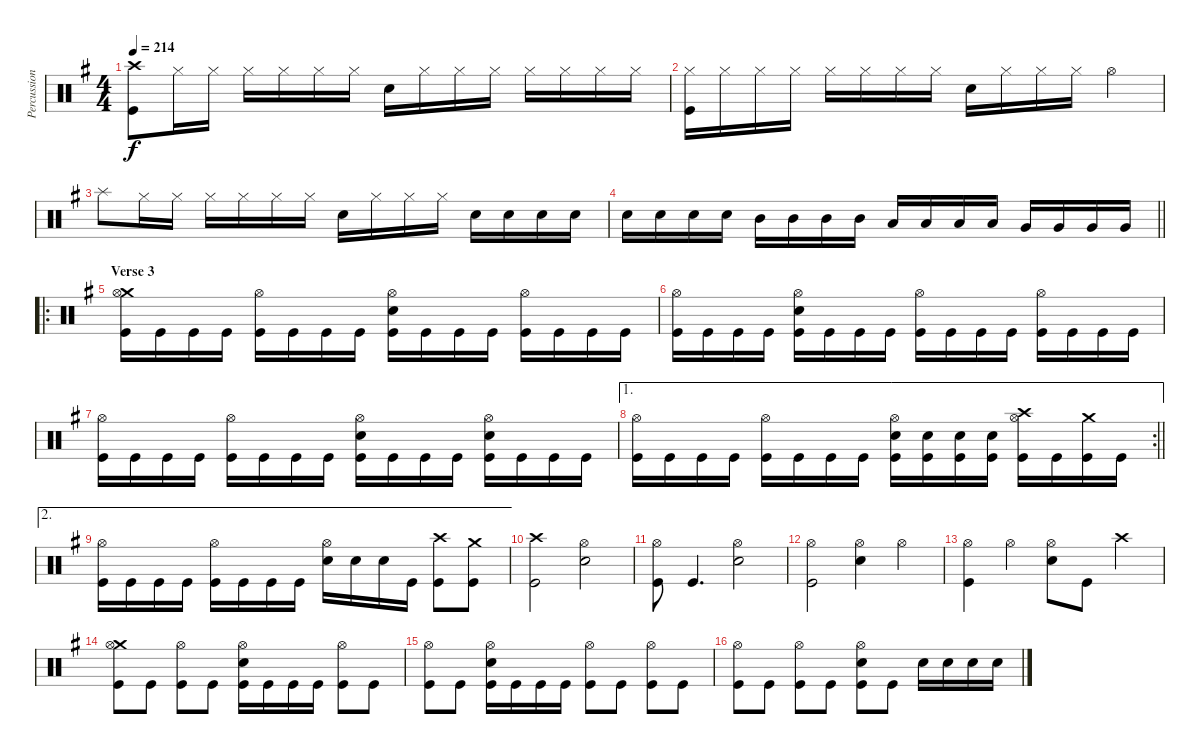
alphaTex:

\track ("Percussion" "Percussion") {instrument percussion}
\staff {score}
\articulation defaults
\ts (4 4)
\tempo 214
\clef neutral
\ks eminor
("Crash high (hit)" "Kick (hit)").8{dy f} "Hi-Hat (closed)".16 "Hi-Hat (closed)".16 "Hi-Hat (closed)".16 "Hi-Hat (closed)".16 "Hi-Hat (closed)".16 "Hi-Hat (closed)".16 "Snare (hit) 2".16 "Hi-Hat (closed)".16 "Hi-Hat (closed)".16 "Hi-Hat (closed)".16 "Hi-Hat (closed)".16 "Hi-Hat (closed)".16 "Hi-Hat (closed)".16 "Hi-Hat (closed)".16 |
("Hi-Hat (closed)" "Kick (hit)").16 "Hi-Hat (closed)".16 "Hi-Hat (closed)".16 "Hi-Hat (closed)".16 "Hi-Hat (closed)".16 "Hi-Hat (closed)".16 "Hi-Hat (closed)".16 "Hi-Hat (closed)".16 "Snare (hit) 2".16 "Hi-Hat (closed)".16 "Hi-Hat (closed)".16 "Hi-Hat (closed)".16 "Hi-Hat (open)".4 |
"Splash (hit)".8 "Hi-Hat (closed)".16 "Hi-Hat (closed)".16 "Hi-Hat (closed)".16 "Hi-Hat (closed)".16 "Hi-Hat (closed)".16 "Hi-Hat (closed)".16 "Snare (hit) 2".16 "Hi-Hat (closed)".16 "Hi-Hat (closed)".16 "Hi-Hat (closed)".16 "Snare (hit) 2".16 "Snare (hit) 2".16 "Snare (hit) 2".16 "Snare (hit) 2".16 |
\barLineRight lightlight "Snare (hit) 2".16 "Snare (hit) 2".16 "Snare (hit) 2".16 "Snare (hit) 2".16 "Mid Tom (hit)".16 "Mid Tom (hit)".16 "Mid Tom (hit)".16 "Mid Tom (hit)".16 "Low Tom (hit)".16 "Low Tom (hit)".16 "Low Tom (hit)".16 "Low Tom (hit)".16 "Very Low Tom (hit)".16 "Very Low Tom (hit)".16 "Very Low Tom (hit)".16 "Very Low Tom (hit)".16
|
\ro
\section ("" "Verse 3")
("Crash medium (hit)" "Hi-Hat (open)" "Kick (hit)").16 "Kick (hit)".16 "Kick (hit)".16 "Kick (hit)".16 ("Hi-Hat (open)" "Kick (hit)").16 "Kick (hit)".16 "Kick (hit)".16 "Kick (hit)".16 ("Hi-Hat (open)" "Snare (hit) 2" "Kick (hit)").16 "Kick (hit)".16 "Kick (hit)".16 "Kick (hit)".16 ("Hi-Hat (open)" "Kick (hit)").16 "Kick (hit)".16 "Kick (hit)".16 "Kick (hit)".16 |
("Hi-Hat (open)" "Kick (hit)").16 "Kick (hit)".16 "Kick (hit)".16 "Kick (hit)".16 ("Hi-Hat (open)" "Snare (hit) 2" "Kick (hit)").16 "Kick (hit)".16 "Kick (hit)".16 "Kick (hit)".16 ("Hi-Hat (open)" "Kick (hit)").16 "Kick (hit)".16 "Kick (hit)".16 "Kick (hit)".16 ("Hi-Hat (open)" "Kick (hit)").16 "Kick (hit)".16 "Kick (hit)".16 "Kick (hit)".16 |
("Hi-Hat (open)" "Kick (hit)").16 "Kick (hit)".16 "Kick (hit)".16 "Kick (hit)".16 ("Hi-Hat (open)" "Kick (hit)").16 "Kick (hit)".16 "Kick (hit)".16 "Kick (hit)".16 ("Hi-Hat (open)" "Snare (hit) 2" "Kick (hit)").16 "Kick (hit)".16 "Kick (hit)".16 "Kick (hit)".16 ("Hi-Hat (open)" "Snare (hit) 2" "Kick (hit)").16 "Kick (hit)".16 "Kick (hit)".16 "Kick (hit)".16 |
\ae 1
\rc 2
\barLineRight lightlight
("Hi-Hat (open)" "Kick (hit)").16 "Kick (hit)".16 "Kick (hit)".16 "Kick (hit)".16 ("Hi-Hat (open)" "Kick (hit)").16 "Kick (hit)".16 "Kick (hit)".16 "Kick (hit)".16 ("Hi-Hat (open)" "Snare (hit) 2" "Kick (hit)").16 ("Snare (hit) 2" "Kick (hit)").16 ("Snare (hit) 2" "Kick (hit)").16 ("Snare (hit) 2" "Kick (hit)").16 ("Crash high (hit)" "Hi-Hat (open)" "Kick (hit)").16 "Kick (hit)".16 ("Crash medium (hit)" "Kick (hit)").16 "Kick (hit)".16 |
\ae 2
("Hi-Hat (open)" "Kick (hit)").16 "Kick (hit)".16 "Kick (hit)".16 "Kick (hit)".16 ("Hi-Hat (open)" "Kick (hit)").16 "Kick (hit)".16 "Kick (hit)".16 "Kick (hit)".16 ("Hi-Hat (open)" "Snare (hit) 2").16 "Snare (hit) 2".16 "Snare (hit) 2".16 "Kick (hit)".16 ("Crash high (hit)" "Kick (hit)").8 ("Crash medium (hit)" "Kick (hit)").8 |
("Crash high (hit)" "Kick (hit)").2 ("Hi-Hat (open)" "Snare (hit) 2").2 |
("Hi-Hat (open)" "Kick (hit)").8 "Kick (hit)".4{d} ("Hi-Hat (open)" "Snare (hit) 2").2 |
("Hi-Hat (open)" "Kick (hit)").2 ("Hi-Hat (open)" "Snare (hit) 2").4 "Hi-Hat (open)".4 |
("Hi-Hat (open)" "Kick (hit)").4 "Hi-Hat (open)".4 ("Hi-Hat (open)" "Snare (hit) 2").8 "Kick (hit)".8 "Crash high (hit)".4 |
("Crash medium (hit)" "Hi-Hat (open)" "Kick (hit)").8 "Kick (hit)".8 ("Hi-Hat (open)" "Kick (hit)").8 "Kick (hit)".8 ("Hi-Hat (open)" "Snare (hit) 2" "Kick (hit)").16 "Kick (hit)".16 "Kick (hit)".16 "Kick (hit)".16 ("Hi-Hat (open)" "Kick (hit)").8 "Kick (hit)".8 |
("Hi-Hat (open)" "Kick (hit)").8 "Kick (hit)".8 ("Hi-Hat (open)" "Snare (hit) 2" "Kick (hit)").16 "Kick (hit)".16 "Kick (hit)".16 "Kick (hit)".16 ("Hi-Hat (open)" "Kick (hit)").8 "Kick (hit)".8 ("Hi-Hat (open)" "Kick (hit)").8 "Kick (hit)".8 |
("Hi-Hat (open)" "Kick (hit)").8 "Kick (hit)".8 ("Hi-Hat (open)" "Kick (hit)").8 "Kick (hit)".8 ("Hi-Hat (open)" "Snare (hit) 2" "Kick (hit)").8 "Kick (hit)".8 "Snare (hit) 2".16 "Snare (hit) 2".16 "Snare (hit) 2".16 "Snare (hit) 2".16
